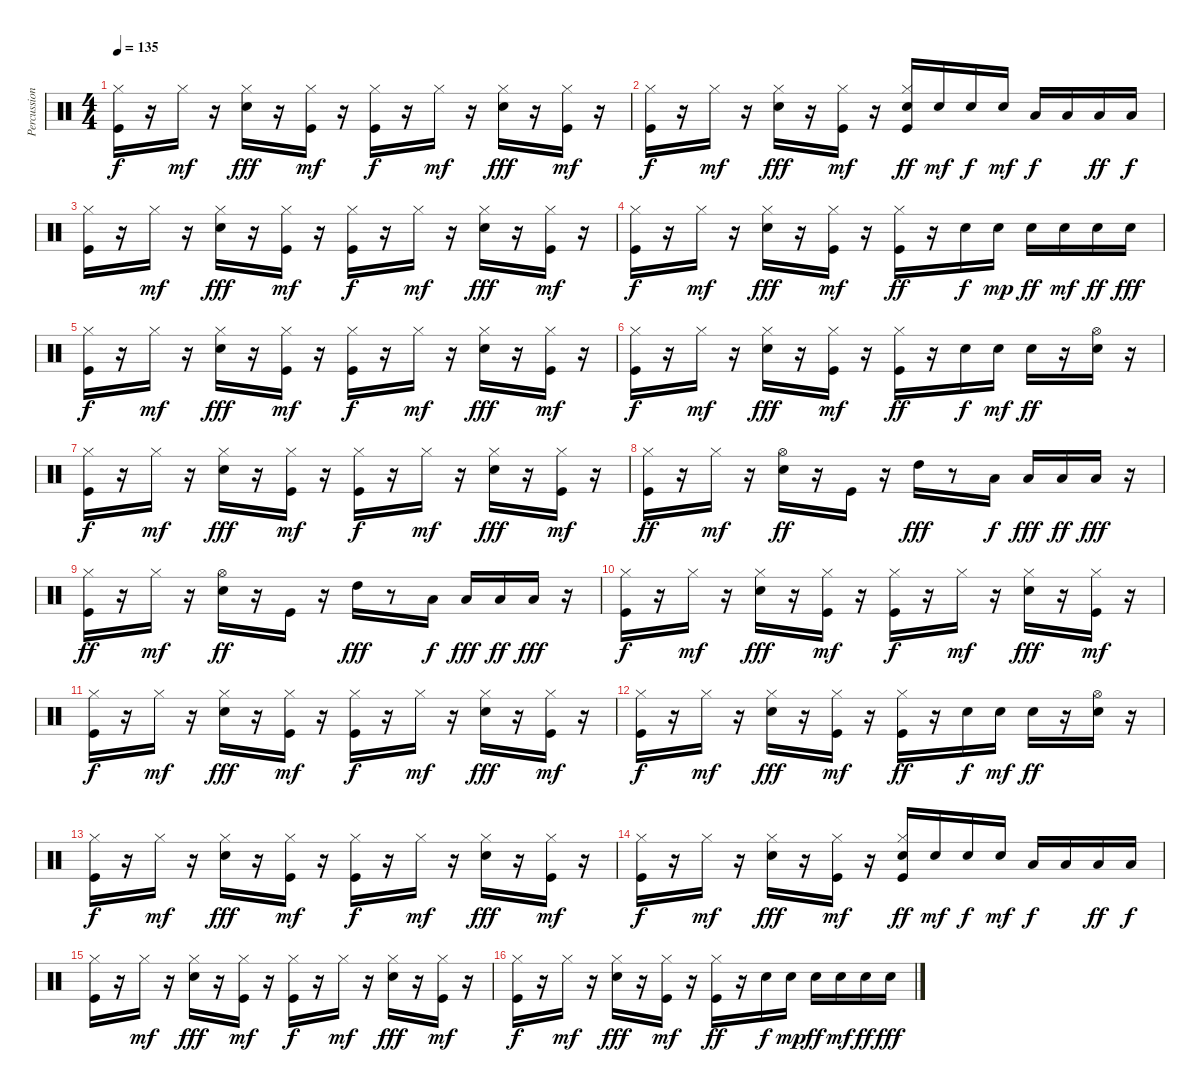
\track ("Percussions" "Percussion") {instrument percussion}
\staff {score}
\articulation defaults
\ts (4 4)
\tempo 135
\clef neutral
\ks c
("Kick (hit)" "Hi-Hat (closed)").16{dy f} r.16 "Hi-Hat (closed)".16{dy mf} r.16 ("Snare (hit) 2" "Hi-Hat (closed)").16{dy fff} r.16 ("Kick (hit)" "Hi-Hat (closed)").16{dy mf} r.16 ("Kick (hit)" "Hi-Hat (closed)").16{dy f} r.16 "Hi-Hat (closed)".16{dy mf} r.16 ("Snare (hit) 2" "Hi-Hat (closed)").16{dy fff} r.16 ("Kick (hit)" "Hi-Hat (closed)").16{dy mf} r.16 |
("Kick (hit)" "Hi-Hat (closed)").16{dy f} r.16 "Hi-Hat (closed)".16{dy mf} r.16 ("Snare (hit) 2" "Hi-Hat (closed)").16{dy fff} r.16 ("Kick (hit)" "Hi-Hat (closed)").16{dy mf} r.16 ("Kick (hit)" "Snare (hit) 2" "Hi-Hat (closed)").16{dy ff} "Snare (hit) 2".16{dy mf} "Snare (hit) 2".16{dy f} "Snare (hit) 2".16{dy mf} "Low Tom (hit)".16{dy f} "Low Tom (hit)".16 "Low Tom (hit)".16{dy ff} "Low Tom (hit)".16{dy f} |
("Kick (hit)" "Hi-Hat (closed)").16 r.16 "Hi-Hat (closed)".16{dy mf} r.16 ("Snare (hit) 2" "Hi-Hat (closed)").16{dy fff} r.16 ("Kick (hit)" "Hi-Hat (closed)").16{dy mf} r.16 ("Kick (hit)" "Hi-Hat (closed)").16{dy f} r.16 "Hi-Hat (closed)".16{dy mf} r.16 ("Snare (hit) 2" "Hi-Hat (closed)").16{dy fff} r.16 ("Kick (hit)" "Hi-Hat (closed)").16{dy mf} r.16 |
("Kick (hit)" "Hi-Hat (closed)").16{dy f} r.16 "Hi-Hat (closed)".16{dy mf} r.16 ("Snare (hit) 2" "Hi-Hat (closed)").16{dy fff} r.16 ("Kick (hit)" "Hi-Hat (closed)").16{dy mf} r.16 ("Kick (hit)" "Hi-Hat (closed)").16{dy ff} r.16 "Snare (hit) 2".16{dy f} "Snare (hit) 2".16{dy mp} "Snare (hit) 2".16{dy ff} "Snare (hit) 2".16{dy mf} "Snare (hit) 2".16{dy ff} "Snare (hit) 2".16{dy fff} |
("Kick (hit)" "Hi-Hat (closed)").16{dy f} r.16 "Hi-Hat (closed)".16{dy mf} r.16 ("Snare (hit) 2" "Hi-Hat (closed)").16{dy fff} r.16 ("Kick (hit)" "Hi-Hat (closed)").16{dy mf} r.16 ("Kick (hit)" "Hi-Hat (closed)").16{dy f} r.16 "Hi-Hat (closed)".16{dy mf} r.16 ("Snare (hit) 2" "Hi-Hat (closed)").16{dy fff} r.16 ("Kick (hit)" "Hi-Hat (closed)").16{dy mf} r.16 |
("Kick (hit)" "Hi-Hat (closed)").16{dy f} r.16 "Hi-Hat (closed)".16{dy mf} r.16 ("Snare (hit) 2" "Hi-Hat (closed)").16{dy fff} r.16 ("Kick (hit)" "Hi-Hat (closed)").16{dy mf} r.16 ("Kick (hit)" "Hi-Hat (closed)").16{dy ff} r.16 "Snare (hit) 2".16{dy f} "Snare (hit) 2".16{dy mf} "Snare (hit) 2".16{dy ff} r.16 ("Snare (hit) 2" "Hi-Hat (open)").16 r.16 |
("Kick (hit)" "Hi-Hat (closed)").16{dy f} r.16 "Hi-Hat (closed)".16{dy mf} r.16 ("Snare (hit) 2" "Hi-Hat (closed)").16{dy fff} r.16 ("Kick (hit)" "Hi-Hat (closed)").16{dy mf} r.16 ("Kick (hit)" "Hi-Hat (closed)").16{dy f} r.16 "Hi-Hat (closed)".16{dy mf} r.16 ("Snare (hit) 2" "Hi-Hat (closed)").16{dy fff} r.16 ("Kick (hit)" "Hi-Hat (closed)").16{dy mf} r.16 |
("Kick (hit)" "Hi-Hat (closed)").16{dy ff} r.16 "Hi-Hat (closed)".16{dy mf} r.16 ("Snare (hit) 2" "Hi-Hat (open)").16{dy ff} r.16 "Kick (hit)".16 r.16 "High Tom (hit)".16{dy fff} r.8 "Low Tom (hit)".16{dy f} "Low Tom (hit)".16{dy fff} "Low Floor Tom (hit)".16{dy ff} "Low Floor Tom (hit)".16{dy fff} r.16 |
("Kick (hit)" "Hi-Hat (closed)").16{dy ff} r.16 "Hi-Hat (closed)".16{dy mf} r.16 ("Snare (hit) 2" "Hi-Hat (open)").16{dy ff} r.16 "Kick (hit)".16 r.16 "High Tom (hit)".16{dy fff} r.8 "Low Tom (hit)".16{dy f} "Low Tom (hit)".16{dy fff} "Low Floor Tom (hit)".16{dy ff} "Low Floor Tom (hit)".16{dy fff} r.16 |
("Kick (hit)" "Hi-Hat (closed)").16{dy f} r.16 "Hi-Hat (closed)".16{dy mf} r.16 ("Snare (hit) 2" "Hi-Hat (closed)").16{dy fff} r.16 ("Kick (hit)" "Hi-Hat (closed)").16{dy mf} r.16 ("Kick (hit)" "Hi-Hat (closed)").16{dy f} r.16 "Hi-Hat (closed)".16{dy mf} r.16 ("Snare (hit) 2" "Hi-Hat (closed)").16{dy fff} r.16 ("Kick (hit)" "Hi-Hat (closed)").16{dy mf} r.16 |
("Kick (hit)" "Hi-Hat (closed)").16{dy f} r.16 "Hi-Hat (closed)".16{dy mf} r.16 ("Snare (hit) 2" "Hi-Hat (closed)").16{dy fff} r.16 ("Kick (hit)" "Hi-Hat (closed)").16{dy mf} r.16 ("Kick (hit)" "Hi-Hat (closed)").16{dy f} r.16 "Hi-Hat (closed)".16{dy mf} r.16 ("Snare (hit) 2" "Hi-Hat (closed)").16{dy fff} r.16 ("Kick (hit)" "Hi-Hat (closed)").16{dy mf} r.16 |
("Kick (hit)" "Hi-Hat (closed)").16{dy f} r.16 "Hi-Hat (closed)".16{dy mf} r.16 ("Snare (hit) 2" "Hi-Hat (closed)").16{dy fff} r.16 ("Kick (hit)" "Hi-Hat (closed)").16{dy mf} r.16 ("Kick (hit)" "Hi-Hat (closed)").16{dy ff} r.16 "Snare (hit) 2".16{dy f} "Snare (hit) 2".16{dy mf} "Snare (hit) 2".16{dy ff} r.16 ("Snare (hit) 2" "Hi-Hat (open)").16 r.16 |
("Kick (hit)" "Hi-Hat (closed)").16{dy f} r.16 "Hi-Hat (closed)".16{dy mf} r.16 ("Snare (hit) 2" "Hi-Hat (closed)").16{dy fff} r.16 ("Kick (hit)" "Hi-Hat (closed)").16{dy mf} r.16 ("Kick (hit)" "Hi-Hat (closed)").16{dy f} r.16 "Hi-Hat (closed)".16{dy mf} r.16 ("Snare (hit) 2" "Hi-Hat (closed)").16{dy fff} r.16 ("Kick (hit)" "Hi-Hat (closed)").16{dy mf} r.16 |
("Kick (hit)" "Hi-Hat (closed)").16{dy f} r.16 "Hi-Hat (closed)".16{dy mf} r.16 ("Snare (hit) 2" "Hi-Hat (closed)").16{dy fff} r.16 ("Kick (hit)" "Hi-Hat (closed)").16{dy mf} r.16 ("Kick (hit)" "Snare (hit) 2" "Hi-Hat (closed)").16{dy ff} "Snare (hit) 2".16{dy mf} "Snare (hit) 2".16{dy f} "Snare (hit) 2".16{dy mf} "Low Tom (hit)".16{dy f} "Low Tom (hit)".16 "Low Tom (hit)".16{dy ff} "Low Tom (hit)".16{dy f} |
("Kick (hit)" "Hi-Hat (closed)").16 r.16 "Hi-Hat (closed)".16{dy mf} r.16 ("Snare (hit) 2" "Hi-Hat (closed)").16{dy fff} r.16 ("Kick (hit)" "Hi-Hat (closed)").16{dy mf} r.16 ("Kick (hit)" "Hi-Hat (closed)").16{dy f} r.16 "Hi-Hat (closed)".16{dy mf} r.16 ("Snare (hit) 2" "Hi-Hat (closed)").16{dy fff} r.16 ("Kick (hit)" "Hi-Hat (closed)").16{dy mf} r.16 |
("Kick (hit)" "Hi-Hat (closed)").16{dy f} r.16 "Hi-Hat (closed)".16{dy mf} r.16 ("Snare (hit) 2" "Hi-Hat (closed)").16{dy fff} r.16 ("Kick (hit)" "Hi-Hat (closed)").16{dy mf} r.16 ("Kick (hit)" "Hi-Hat (closed)").16{dy ff} r.16 "Snare (hit) 2".16{dy f} "Snare (hit) 2".16{dy mp} "Snare (hit) 2".16{dy ff} "Snare (hit) 2".16{dy mf} "Snare (hit) 2".16{dy ff} "Snare (hit) 2".16{dy fff}
